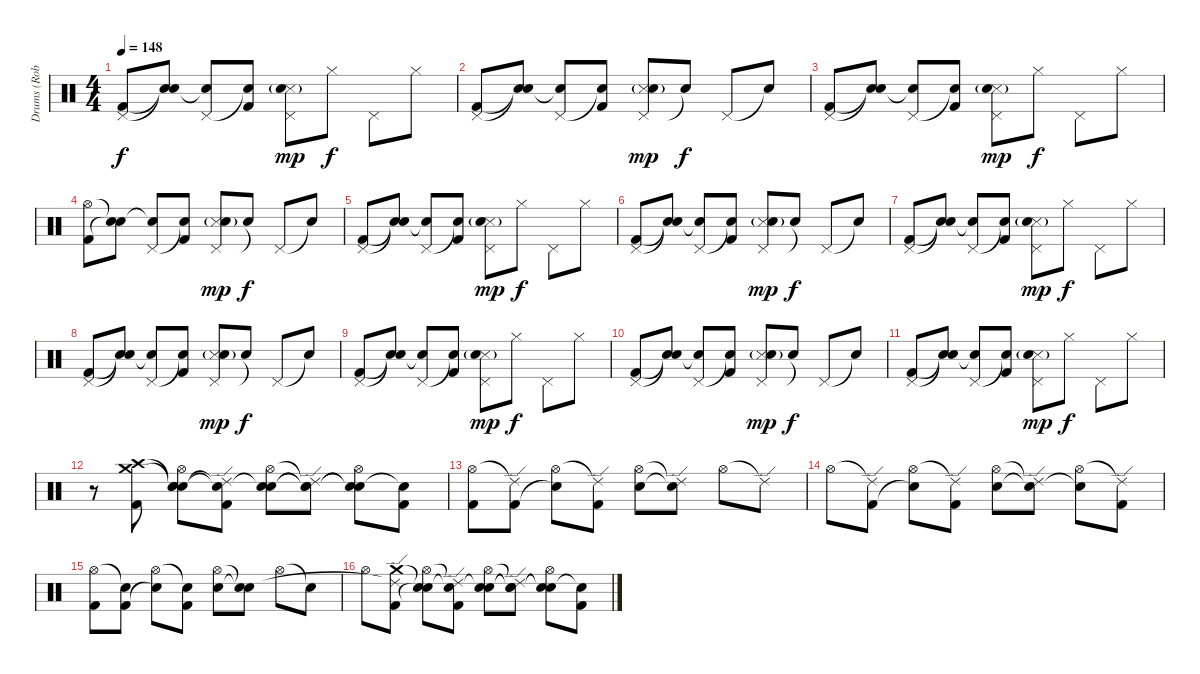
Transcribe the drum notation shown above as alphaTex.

\track ("Drums (Rob Bourdon)" "Drums (Rob") {instrument percussion}
\staff {score}
\articulation defaults
\ts (4 4)
\tempo 148
\clef neutral
\ks c
("Pedal Hi-Hat (hit)" "Kick (hit) 2").8{dy f} ("Snare (hit)"{t} "Snare (hit)"{t}).8 ("Pedal Hi-Hat (hit)" "Snare (hit)"{t}).8 ("Snare (hit)"{t} "Kick (hit) 2").8 ("Pedal Hi-Hat (hit)" "Snare (side stick) 3" "Electric Snare (hit)"{g}).8{dy mp} "Hi-Hat (closed)".8{dy f} "Pedal Hi-Hat (hit)".8 "Hi-Hat (closed)".8 |
("Pedal Hi-Hat (hit)" "Kick (hit) 2").8 ("Snare (hit)"{t} "Snare (hit)"{t}).8 ("Pedal Hi-Hat (hit)" "Snare (hit)"{t}).8 ("Snare (hit)"{t} "Kick (hit) 2").8 ("Pedal Hi-Hat (hit)" "Snare (side stick) 3" "Electric Snare (hit)"{g}).8{dy mp} "Snare (hit)"{t}.8{dy f} "Pedal Hi-Hat (hit)".8 "Snare (hit)"{t}.8 |
("Pedal Hi-Hat (hit)" "Kick (hit) 2").8 ("Snare (hit)"{t} "Snare (hit)"{t}).8 ("Pedal Hi-Hat (hit)" "Snare (hit)"{t}).8 ("Snare (hit)"{t} "Kick (hit) 2").8 ("Pedal Hi-Hat (hit)" "Snare (side stick) 3" "Electric Snare (hit)"{g}).8{dy mp} "Hi-Hat (closed)".8{dy f} "Pedal Hi-Hat (hit)".8 "Hi-Hat (closed)".8 |
("Hi-Hat (open)" "Kick (hit) 2").8 ("Snare (hit)"{t} "Snare (hit)"{t}).8 ("Pedal Hi-Hat (hit)" "Snare (hit)"{t}).8 ("Snare (hit)"{t} "Kick (hit) 2").8 ("Pedal Hi-Hat (hit)" "Snare (side stick) 3" "Electric Snare (hit)"{g}).8{dy mp} "Snare (hit)"{t}.8{dy f} "Pedal Hi-Hat (hit)".8 "Snare (hit)"{t}.8 |
("Pedal Hi-Hat (hit)" "Kick (hit) 2").8 ("Snare (hit)"{t} "Snare (hit)"{t}).8 ("Pedal Hi-Hat (hit)" "Snare (hit)"{t}).8 ("Snare (hit)"{t} "Kick (hit) 2").8 ("Pedal Hi-Hat (hit)" "Snare (side stick) 3" "Electric Snare (hit)"{g}).8{dy mp} "Hi-Hat (closed)".8{dy f} "Pedal Hi-Hat (hit)".8 "Hi-Hat (closed)".8 |
("Pedal Hi-Hat (hit)" "Kick (hit) 2").8 ("Snare (hit)"{t} "Snare (hit)"{t}).8 ("Pedal Hi-Hat (hit)" "Snare (hit)"{t}).8 ("Snare (hit)"{t} "Kick (hit) 2").8 ("Pedal Hi-Hat (hit)" "Snare (side stick) 3" "Electric Snare (hit)"{g}).8{dy mp} "Snare (hit)"{t}.8{dy f} "Pedal Hi-Hat (hit)".8 "Snare (hit)"{t}.8 |
("Pedal Hi-Hat (hit)" "Kick (hit) 2").8 ("Snare (hit)"{t} "Snare (hit)"{t}).8 ("Pedal Hi-Hat (hit)" "Snare (hit)"{t}).8 ("Snare (hit)"{t} "Kick (hit) 2").8 ("Pedal Hi-Hat (hit)" "Snare (side stick) 3" "Electric Snare (hit)"{g}).8{dy mp} "Hi-Hat (closed)".8{dy f} "Pedal Hi-Hat (hit)".8 "Hi-Hat (closed)".8 |
("Pedal Hi-Hat (hit)" "Kick (hit) 2").8 ("Snare (hit)"{t} "Snare (hit)"{t}).8 ("Pedal Hi-Hat (hit)" "Snare (hit)"{t}).8 ("Snare (hit)"{t} "Kick (hit) 2").8 ("Pedal Hi-Hat (hit)" "Snare (side stick) 3" "Electric Snare (hit)"{g}).8{dy mp} "Snare (hit)"{t}.8{dy f} "Pedal Hi-Hat (hit)".8 "Snare (hit)"{t}.8 |
("Pedal Hi-Hat (hit)" "Kick (hit) 2").8 ("Snare (hit)"{t} "Snare (hit)"{t}).8 ("Pedal Hi-Hat (hit)" "Snare (hit)"{t}).8 ("Snare (hit)"{t} "Kick (hit) 2").8 ("Pedal Hi-Hat (hit)" "Snare (side stick) 3" "Electric Snare (hit)"{g}).8{dy mp} "Hi-Hat (closed)".8{dy f} "Pedal Hi-Hat (hit)".8 "Hi-Hat (closed)".8 |
("Pedal Hi-Hat (hit)" "Kick (hit) 2").8 ("Snare (hit)"{t} "Snare (hit)"{t}).8 ("Pedal Hi-Hat (hit)" "Snare (hit)"{t}).8 ("Snare (hit)"{t} "Kick (hit) 2").8 ("Pedal Hi-Hat (hit)" "Snare (side stick) 3" "Electric Snare (hit)"{g}).8{dy mp} "Snare (hit)"{t}.8{dy f} "Pedal Hi-Hat (hit)".8 "Snare (hit)"{t}.8 |
("Pedal Hi-Hat (hit)" "Kick (hit) 2").8 ("Snare (hit)"{t} "Snare (hit)"{t}).8 ("Pedal Hi-Hat (hit)" "Snare (hit)"{t}).8 ("Snare (hit)"{t} "Kick (hit) 2").8 ("Pedal Hi-Hat (hit)" "Snare (side stick) 3" "Electric Snare (hit)"{g}).8{dy mp} "Hi-Hat (closed)".8{dy f} "Pedal Hi-Hat (hit)".8 "Hi-Hat (closed)".8 |
r.8 ("Crash medium (hit)" "Crash high (hit)" "Kick (hit) 2").8 ("Snare (hit)"{t} "Snare (hit)"{t} "Hi-Hat (open)" "Snare (hit)").8 ("Snare (hit)"{t} "Ride (edge) 2"{t} "Kick (hit) 2").8 ("Snare (hit)"{t} "Hi-Hat (open)" "Electric Snare (hit)").8 ("Snare (hit)"{t} "Ride (edge) 2"{t} "Snare (hit)"{t}).8 ("Snare (hit)"{t} "Hi-Hat (open)" "Snare (hit)"{t}).8 ("Snare (hit)"{t} "Kick (hit) 2").8 |
("Hi-Hat (open)" "Kick (hit) 2").8 ("Ride (edge) 2"{t} "Kick (hit) 2").8 ("Hi-Hat (open)" "Snare (hit)"{t}).8 ("Ride (edge) 2"{t} "Kick (hit) 2").8 ("Hi-Hat (open)" "Electric Snare (hit)").8 ("Ride (edge) 2"{t} "Snare (hit)"{t}).8 "Hi-Hat (open)".8 "Ride (edge) 2"{t}.8 |
"Hi-Hat (open)".8 ("Ride (edge) 2"{t} "Kick (hit) 2").8 ("Hi-Hat (open)" "Snare (hit)"{t}).8 ("Ride (edge) 2"{t} "Kick (hit) 2").8 ("Hi-Hat (open)" "Electric Snare (hit)").8 ("Ride (edge) 2"{t} "Snare (hit)"{t}).8 ("Hi-Hat (open)" "Snare (hit)"{t}).8 ("Ride (edge) 2"{t} "Kick (hit) 2").8 |
("Hi-Hat (open)" "Kick (hit) 2").8 ("Snare (hit)"{t} "Kick (hit) 2").8 ("Hi-Hat (open)" "Snare (hit)"{t}).8 ("Snare (hit)"{t} "Kick (hit) 2").8 ("Hi-Hat (open)" "Electric Snare (hit)").8 ("Snare (hit)"{t} "Snare (hit)"{t}).8 "Hi-Hat (open)".8 "Snare (hit)"{t}.8 |
"Hi-Hat (open)".8 ("Crash medium (hit)" "Ride (edge) 2"{t} "Kick (hit) 2").8 ("Snare (hit)"{t} "Hi-Hat (open)" "Snare (hit)"{t}).8 ("Snare (hit)"{t} "Ride (edge) 2"{t} "Kick (hit) 2").8 ("Snare (hit)"{t} "Hi-Hat (open)" "Electric Snare (hit)").8 ("Snare (hit)"{t} "Ride (edge) 2"{t} "Snare (hit)"{t}).8 ("Snare (hit)"{t} "Hi-Hat (open)" "Snare (hit)"{t}).8 ("Snare (hit)"{t} "Kick (hit) 2").8
